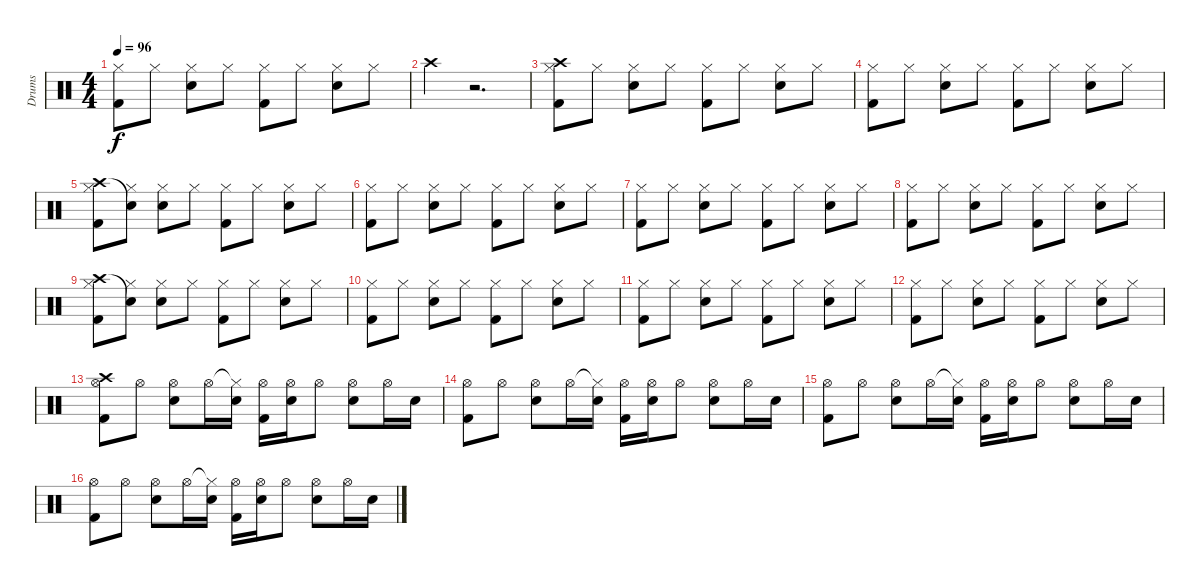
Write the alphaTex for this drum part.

\track ("Drums" "Drums") {instrument percussion}
\staff {score}
\articulation defaults
\ts (4 4)
\tempo 96
\clef neutral
\ks c
("Hi-Hat (closed)" "Kick (hit) 2").8{dy f} "Hi-Hat (closed)".8 ("Hi-Hat (closed)" "Snare (hit) 2").8 "Hi-Hat (closed)".8 ("Hi-Hat (closed)" "Kick (hit) 2").8 "Hi-Hat (closed)".8 ("Hi-Hat (closed)" "Snare (hit) 2").8 "Hi-Hat (closed)".8 |
"Crash high (hit)".4 r.2{d} |
("Crash high (hit)" "Hi-Hat (closed)" "Kick (hit) 2").8 "Hi-Hat (closed)".8 ("Hi-Hat (closed)" "Snare (hit) 2").8 "Hi-Hat (closed)".8 ("Hi-Hat (closed)" "Kick (hit) 2").8 "Hi-Hat (closed)".8 ("Hi-Hat (closed)" "Snare (hit) 2").8 "Hi-Hat (closed)".8 |
("Hi-Hat (closed)" "Kick (hit) 2").8 "Hi-Hat (closed)".8 ("Hi-Hat (closed)" "Snare (hit) 2").8 "Hi-Hat (closed)".8 ("Hi-Hat (closed)" "Kick (hit) 2").8 "Hi-Hat (closed)".8 ("Hi-Hat (closed)" "Snare (hit) 2").8 "Hi-Hat (closed)".8 |
("Crash high (hit)" "Hi-Hat (closed)" "Kick (hit) 2").8 ("Snare (hit)"{t} "Hi-Hat (closed)").8 ("Hi-Hat (closed)" "Snare (hit) 2").8 "Hi-Hat (closed)".8 ("Hi-Hat (closed)" "Kick (hit) 2").8 "Hi-Hat (closed)".8 ("Hi-Hat (closed)" "Snare (hit) 2").8 "Hi-Hat (closed)".8 |
("Hi-Hat (closed)" "Kick (hit) 2").8 "Hi-Hat (closed)".8 ("Hi-Hat (closed)" "Snare (hit) 2").8 "Hi-Hat (closed)".8 ("Hi-Hat (closed)" "Kick (hit) 2").8 "Hi-Hat (closed)".8 ("Hi-Hat (closed)" "Snare (hit) 2").8 "Hi-Hat (closed)".8 |
("Hi-Hat (closed)" "Kick (hit) 2").8 "Hi-Hat (closed)".8 ("Hi-Hat (closed)" "Snare (hit) 2").8 "Hi-Hat (closed)".8 ("Hi-Hat (closed)" "Kick (hit) 2").8 "Hi-Hat (closed)".8 ("Hi-Hat (closed)" "Snare (hit) 2").8 "Hi-Hat (closed)".8 |
("Hi-Hat (closed)" "Kick (hit) 2").8 "Hi-Hat (closed)".8 ("Hi-Hat (closed)" "Snare (hit) 2").8 "Hi-Hat (closed)".8 ("Hi-Hat (closed)" "Kick (hit) 2").8 "Hi-Hat (closed)".8 ("Hi-Hat (closed)" "Snare (hit) 2").8 "Hi-Hat (closed)".8 |
("Crash high (hit)" "Hi-Hat (closed)" "Kick (hit) 2").8 ("Snare (hit)"{t} "Hi-Hat (closed)").8 ("Hi-Hat (closed)" "Snare (hit) 2").8 "Hi-Hat (closed)".8 ("Hi-Hat (closed)" "Kick (hit) 2").8 "Hi-Hat (closed)".8 ("Hi-Hat (closed)" "Snare (hit) 2").8 "Hi-Hat (closed)".8 |
("Hi-Hat (closed)" "Kick (hit) 2").8 "Hi-Hat (closed)".8 ("Hi-Hat (closed)" "Snare (hit) 2").8 "Hi-Hat (closed)".8 ("Hi-Hat (closed)" "Kick (hit) 2").8 "Hi-Hat (closed)".8 ("Hi-Hat (closed)" "Snare (hit) 2").8 "Hi-Hat (closed)".8 |
("Hi-Hat (closed)" "Kick (hit) 2").8 "Hi-Hat (closed)".8 ("Hi-Hat (closed)" "Snare (hit) 2").8 "Hi-Hat (closed)".8 ("Hi-Hat (closed)" "Kick (hit) 2").8 "Hi-Hat (closed)".8 ("Hi-Hat (closed)" "Snare (hit) 2").8 "Hi-Hat (closed)".8 |
("Hi-Hat (closed)" "Kick (hit) 2").8 "Hi-Hat (closed)".8 ("Hi-Hat (closed)" "Snare (hit) 2").8 "Hi-Hat (closed)".8 ("Hi-Hat (closed)" "Kick (hit) 2").8 "Hi-Hat (closed)".8 ("Hi-Hat (closed)" "Snare (hit) 2").8 "Hi-Hat (closed)".8 |
("Crash high (hit)" "Hi-Hat (open)" "Kick (hit) 2").8 "Hi-Hat (open)".8 ("Hi-Hat (open)" "Snare (hit) 2").8 "Hi-Hat (open)".16 ("Hi-Hat (closed)"{t} "Snare (hit) 2").16 ("Hi-Hat (open)" "Kick (hit) 2").16 ("Hi-Hat (open)" "Snare (hit) 2").16 "Hi-Hat (open)".8 ("Hi-Hat (open)" "Snare (hit) 2").8 "Hi-Hat (open)".16 "Snare (hit) 2".16 |
("Hi-Hat (open)" "Kick (hit) 2").8 "Hi-Hat (open)".8 ("Hi-Hat (open)" "Snare (hit) 2").8 "Hi-Hat (open)".16 ("Hi-Hat (closed)"{t} "Snare (hit) 2").16 ("Hi-Hat (open)" "Kick (hit) 2").16 ("Hi-Hat (open)" "Snare (hit) 2").16 "Hi-Hat (open)".8 ("Hi-Hat (open)" "Snare (hit) 2").8 "Hi-Hat (open)".16 "Snare (hit) 2".16 |
("Hi-Hat (open)" "Kick (hit) 2").8 "Hi-Hat (open)".8 ("Hi-Hat (open)" "Snare (hit) 2").8 "Hi-Hat (open)".16 ("Hi-Hat (closed)"{t} "Snare (hit) 2").16 ("Hi-Hat (open)" "Kick (hit) 2").16 ("Hi-Hat (open)" "Snare (hit) 2").16 "Hi-Hat (open)".8 ("Hi-Hat (open)" "Snare (hit) 2").8 "Hi-Hat (open)".16 "Snare (hit) 2".16 |
("Hi-Hat (open)" "Kick (hit) 2").8 "Hi-Hat (open)".8 ("Hi-Hat (open)" "Snare (hit) 2").8 "Hi-Hat (open)".16 ("Hi-Hat (closed)"{t} "Snare (hit) 2").16 ("Hi-Hat (open)" "Kick (hit) 2").16 ("Hi-Hat (open)" "Snare (hit) 2").16 "Hi-Hat (open)".8 ("Hi-Hat (open)" "Snare (hit) 2").8 "Hi-Hat (open)".16 "Snare (hit) 2".16
